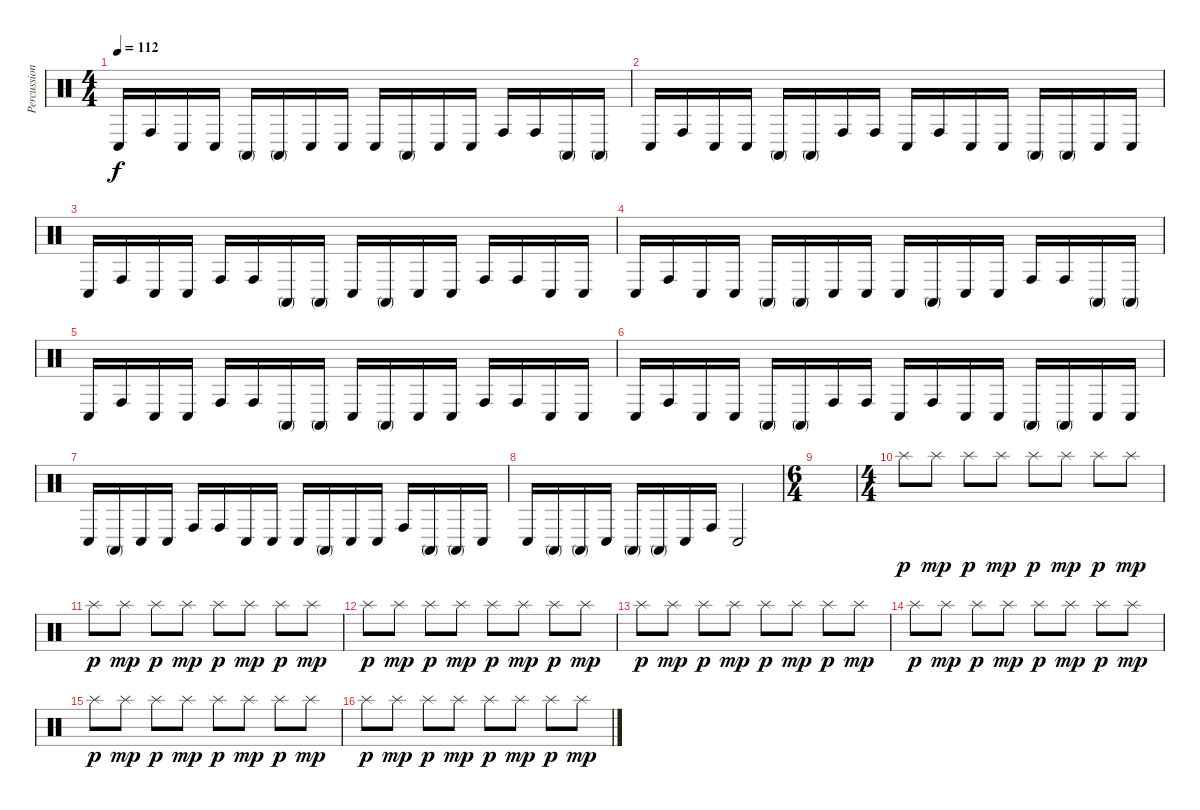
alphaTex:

\track ("Percussion" "Percussion") {instrument percussion}
\staff {score}
\articulation defaults
\ts (4 4)
\tempo 112
\clef neutral
\ks c "Conga low (hit)".16{dy f} "Conga high (hit)".16 "Conga low (hit)".16 "Conga low (hit)".16 "Conga high (mute)".16 "Conga high (mute)".16 "Conga low (hit)".16 "Conga low (hit)".16 "Conga low (hit)".16 "Conga high (mute)".16 "Conga low (hit)".16 "Conga low (hit)".16 "Conga high (hit)".16 "Conga high (hit)".16 "Conga high (mute)".16 "Conga high (mute)".16
|
"Conga low (hit)".16 "Conga high (hit)".16 "Conga low (hit)".16 "Conga low (hit)".16 "Conga high (mute)".16 "Conga high (mute)".16 "Conga high (hit)".16 "Conga high (hit)".16 "Conga low (hit)".16 "Conga high (hit)".16 "Conga low (hit)".16 "Conga low (hit)".16 "Conga high (mute)".16 "Conga high (mute)".16 "Conga low (hit)".16 "Conga low (hit)".16 |
"Conga low (hit)".16 "Conga high (hit)".16 "Conga low (hit)".16 "Conga low (hit)".16 "Conga high (hit)".16 "Conga high (hit)".16 "Conga high (mute)".16 "Conga high (mute)".16 "Conga low (hit)".16 "Conga high (mute)".16 "Conga low (hit)".16 "Conga low (hit)".16 "Conga high (hit)".16 "Conga high (hit)".16 "Conga low (hit)".16 "Conga low (hit)".16 |
"Conga low (hit)".16 "Conga high (hit)".16 "Conga low (hit)".16 "Conga low (hit)".16 "Conga high (mute)".16 "Conga high (mute)".16 "Conga low (hit)".16 "Conga low (hit)".16 "Conga low (hit)".16 "Conga high (mute)".16 "Conga low (hit)".16 "Conga low (hit)".16 "Conga high (hit)".16 "Conga high (hit)".16 "Conga high (mute)".16 "Conga high (mute)".16 |
"Conga low (hit)".16 "Conga high (hit)".16 "Conga low (hit)".16 "Conga low (hit)".16 "Conga high (hit)".16 "Conga high (hit)".16 "Conga high (mute)".16 "Conga high (mute)".16 "Conga low (hit)".16 "Conga high (mute)".16 "Conga low (hit)".16 "Conga low (hit)".16 "Conga high (hit)".16 "Conga high (hit)".16 "Conga low (hit)".16 "Conga low (hit)".16 |
"Conga low (hit)".16 "Conga high (hit)".16 "Conga low (hit)".16 "Conga low (hit)".16 "Conga high (mute)".16 "Conga high (mute)".16 "Conga high (hit)".16 "Conga high (hit)".16 "Conga low (hit)".16 "Conga high (hit)".16 "Conga low (hit)".16 "Conga low (hit)".16 "Conga high (mute)".16 "Conga high (mute)".16 "Conga low (hit)".16 "Conga low (hit)".16 |
"Conga low (hit)".16 "Conga high (mute)".16 "Conga low (hit)".16 "Conga low (hit)".16 "Conga high (hit)".16 "Conga high (hit)".16 "Conga low (hit)".16 "Conga low (hit)".16 "Conga low (hit)".16 "Conga high (mute)".16 "Conga low (hit)".16 "Conga low (hit)".16 "Conga high (hit)".16 "Conga high (mute)".16 "Conga high (mute)".16 "Conga low (hit)".16 |
"Conga low (hit)".16 "Conga high (mute)".16 "Conga high (mute)".16 "Conga low (hit)".16 "Conga high (mute)".16 "Conga high (mute)".16 "Conga low (hit)".16 "Conga high (hit)".16 "Conga low (hit)".2 |
\ts (6 4)
|
\ts (4 4)
"Splash (hit)".8{dy p} "Splash (hit)".8{dy mp} "Splash (hit)".8{dy p} "Splash (hit)".8{dy mp} "Splash (hit)".8{dy p} "Splash (hit)".8{dy mp} "Splash (hit)".8{dy p} "Splash (hit)".8{dy mp} |
"Splash (hit)".8{dy p} "Splash (hit)".8{dy mp} "Splash (hit)".8{dy p} "Splash (hit)".8{dy mp} "Splash (hit)".8{dy p} "Splash (hit)".8{dy mp} "Splash (hit)".8{dy p} "Splash (hit)".8{dy mp} |
"Splash (hit)".8{dy p} "Splash (hit)".8{dy mp} "Splash (hit)".8{dy p} "Splash (hit)".8{dy mp} "Splash (hit)".8{dy p} "Splash (hit)".8{dy mp} "Splash (hit)".8{dy p} "Splash (hit)".8{dy mp} |
"Splash (hit)".8{dy p} "Splash (hit)".8{dy mp} "Splash (hit)".8{dy p} "Splash (hit)".8{dy mp} "Splash (hit)".8{dy p} "Splash (hit)".8{dy mp} "Splash (hit)".8{dy p} "Splash (hit)".8{dy mp} |
"Splash (hit)".8{dy p} "Splash (hit)".8{dy mp} "Splash (hit)".8{dy p} "Splash (hit)".8{dy mp} "Splash (hit)".8{dy p} "Splash (hit)".8{dy mp} "Splash (hit)".8{dy p} "Splash (hit)".8{dy mp} |
"Splash (hit)".8{dy p} "Splash (hit)".8{dy mp} "Splash (hit)".8{dy p} "Splash (hit)".8{dy mp} "Splash (hit)".8{dy p} "Splash (hit)".8{dy mp} "Splash (hit)".8{dy p} "Splash (hit)".8{dy mp} |
"Splash (hit)".8{dy p} "Splash (hit)".8{dy mp} "Splash (hit)".8{dy p} "Splash (hit)".8{dy mp} "Splash (hit)".8{dy p} "Splash (hit)".8{dy mp} "Splash (hit)".8{dy p} "Splash (hit)".8{dy mp}
